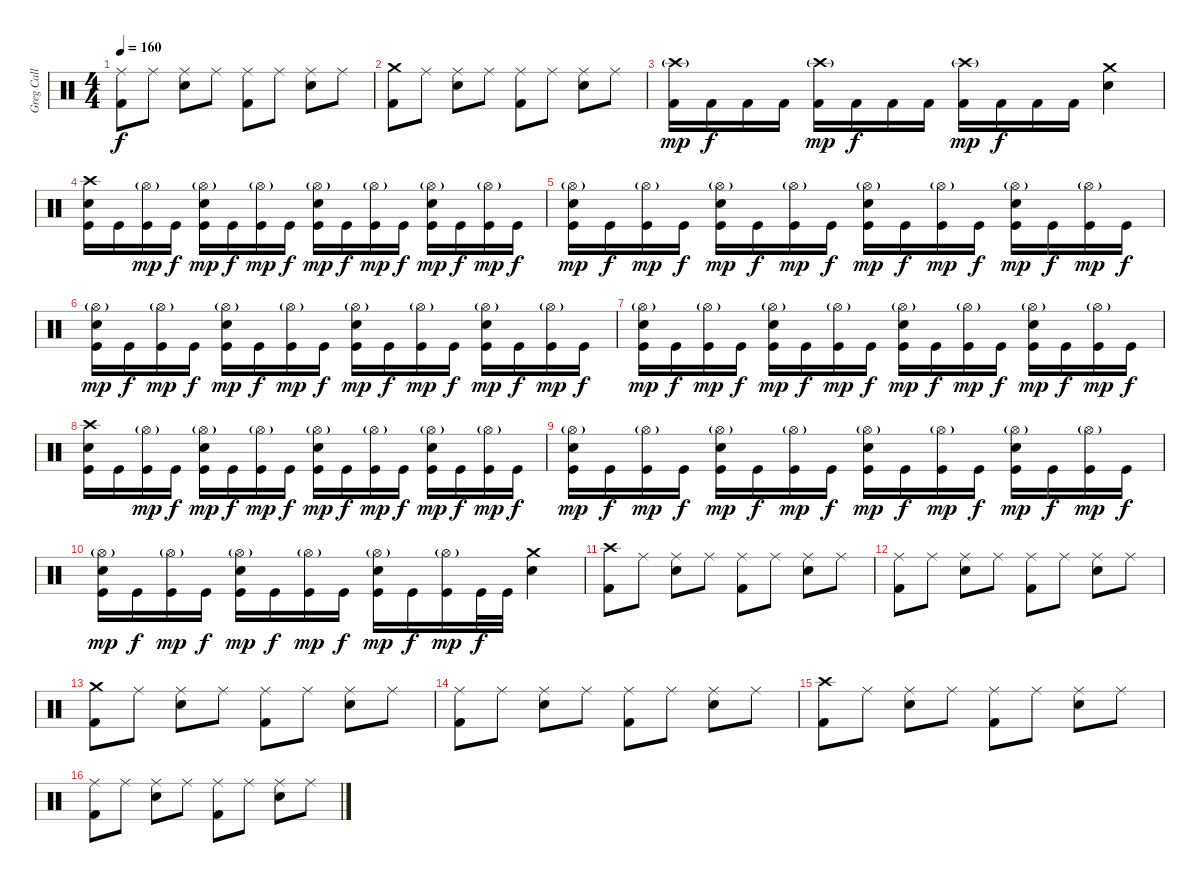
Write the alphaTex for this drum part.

\track ("Greg Call (Drums)" "Greg Call ") {instrument percussion}
\staff {score}
\articulation defaults
\ts (4 4)
\tempo 160
\clef neutral
\ks c
("Ride (middle)" "Kick (hit) 2").8{dy f} "Ride (middle)".8 ("Ride (middle)" "Electric Snare (hit)").8 "Ride (middle)".8 ("Ride (middle)" "Kick (hit) 2").8 "Ride (middle)".8 ("Ride (middle)" "Electric Snare (hit)").8 "Ride (middle)".8 |
("Crash medium (hit)" "Kick (hit) 2").8 "Ride (middle)".8 ("Ride (middle)" "Electric Snare (hit)").8 "Ride (middle)".8 ("Ride (middle)" "Kick (hit) 2").8 "Ride (middle)".8 ("Ride (middle)" "Electric Snare (hit)").8 "Ride (middle)".8 |
("Kick (hit) 2" "Crash high (hit)"{g}).16{dy mp} "Kick (hit) 2".16{dy f} "Kick (hit) 2".16 "Kick (hit) 2".16 ("Crash high (hit)"{g} "Kick (hit) 2").16{dy mp} "Kick (hit) 2".16{dy f} "Kick (hit) 2".16 "Kick (hit) 2".16 ("Crash high (hit)"{g} "Kick (hit) 2").16{dy mp} "Kick (hit) 2".16{dy f} "Kick (hit) 2".16 "Kick (hit) 2".16 ("Crash medium (hit)" "Electric Snare (hit)").4 |
("Crash high (hit)" "Electric Snare (hit)" "Kick (hit)").16 "Kick (hit)".16 ("Hi-Hat (open)"{g} "Kick (hit)").16{dy mp} "Kick (hit)".16{dy f} ("Hi-Hat (open)"{g} "Electric Snare (hit)" "Kick (hit)").16{dy mp} "Kick (hit)".16{dy f} ("Hi-Hat (open)"{g} "Kick (hit)").16{dy mp} "Kick (hit)".16{dy f} ("Hi-Hat (open)"{g} "Electric Snare (hit)" "Kick (hit)").16{dy mp} "Kick (hit)".16{dy f} ("Hi-Hat (open)"{g} "Kick (hit)").16{dy mp} "Kick (hit)".16{dy f} ("Hi-Hat (open)"{g} "Electric Snare (hit)" "Kick (hit)").16{dy mp} "Kick (hit)".16{dy f} ("Hi-Hat (open)"{g} "Kick (hit)").16{dy mp} "Kick (hit)".16{dy f} |
("Hi-Hat (open)"{g} "Electric Snare (hit)" "Kick (hit)").16{dy mp} "Kick (hit)".16{dy f} ("Hi-Hat (open)"{g} "Kick (hit)").16{dy mp} "Kick (hit)".16{dy f} ("Hi-Hat (open)"{g} "Electric Snare (hit)" "Kick (hit)").16{dy mp} "Kick (hit)".16{dy f} ("Hi-Hat (open)"{g} "Kick (hit)").16{dy mp} "Kick (hit)".16{dy f} ("Hi-Hat (open)"{g} "Electric Snare (hit)" "Kick (hit)").16{dy mp} "Kick (hit)".16{dy f} ("Hi-Hat (open)"{g} "Kick (hit)").16{dy mp} "Kick (hit)".16{dy f} ("Hi-Hat (open)"{g} "Electric Snare (hit)" "Kick (hit)").16{dy mp} "Kick (hit)".16{dy f} ("Hi-Hat (open)"{g} "Kick (hit)").16{dy mp} "Kick (hit)".16{dy f} |
("Hi-Hat (open)"{g} "Electric Snare (hit)" "Kick (hit)").16{dy mp} "Kick (hit)".16{dy f} ("Hi-Hat (open)"{g} "Kick (hit)").16{dy mp} "Kick (hit)".16{dy f} ("Hi-Hat (open)"{g} "Electric Snare (hit)" "Kick (hit)").16{dy mp} "Kick (hit)".16{dy f} ("Hi-Hat (open)"{g} "Kick (hit)").16{dy mp} "Kick (hit)".16{dy f} ("Hi-Hat (open)"{g} "Electric Snare (hit)" "Kick (hit)").16{dy mp} "Kick (hit)".16{dy f} ("Hi-Hat (open)"{g} "Kick (hit)").16{dy mp} "Kick (hit)".16{dy f} ("Hi-Hat (open)"{g} "Electric Snare (hit)" "Kick (hit)").16{dy mp} "Kick (hit)".16{dy f} ("Hi-Hat (open)"{g} "Kick (hit)").16{dy mp} "Kick (hit)".16{dy f} |
("Hi-Hat (open)"{g} "Electric Snare (hit)" "Kick (hit)").16{dy mp} "Kick (hit)".16{dy f} ("Hi-Hat (open)"{g} "Kick (hit)").16{dy mp} "Kick (hit)".16{dy f} ("Hi-Hat (open)"{g} "Electric Snare (hit)" "Kick (hit)").16{dy mp} "Kick (hit)".16{dy f} ("Hi-Hat (open)"{g} "Kick (hit)").16{dy mp} "Kick (hit)".16{dy f} ("Hi-Hat (open)"{g} "Electric Snare (hit)" "Kick (hit)").16{dy mp} "Kick (hit)".16{dy f} ("Hi-Hat (open)"{g} "Kick (hit)").16{dy mp} "Kick (hit)".16{dy f} ("Hi-Hat (open)"{g} "Electric Snare (hit)" "Kick (hit)").16{dy mp} "Kick (hit)".16{dy f} ("Hi-Hat (open)"{g} "Kick (hit)").16{dy mp} "Kick (hit)".16{dy f} |
("Crash high (hit)" "Electric Snare (hit)" "Kick (hit)").16 "Kick (hit)".16 ("Hi-Hat (open)"{g} "Kick (hit)").16{dy mp} "Kick (hit)".16{dy f} ("Hi-Hat (open)"{g} "Electric Snare (hit)" "Kick (hit)").16{dy mp} "Kick (hit)".16{dy f} ("Hi-Hat (open)"{g} "Kick (hit)").16{dy mp} "Kick (hit)".16{dy f} ("Hi-Hat (open)"{g} "Electric Snare (hit)" "Kick (hit)").16{dy mp} "Kick (hit)".16{dy f} ("Hi-Hat (open)"{g} "Kick (hit)").16{dy mp} "Kick (hit)".16{dy f} ("Hi-Hat (open)"{g} "Electric Snare (hit)" "Kick (hit)").16{dy mp} "Kick (hit)".16{dy f} ("Hi-Hat (open)"{g} "Kick (hit)").16{dy mp} "Kick (hit)".16{dy f} |
("Hi-Hat (open)"{g} "Electric Snare (hit)" "Kick (hit)").16{dy mp} "Kick (hit)".16{dy f} ("Hi-Hat (open)"{g} "Kick (hit)").16{dy mp} "Kick (hit)".16{dy f} ("Hi-Hat (open)"{g} "Electric Snare (hit)" "Kick (hit)").16{dy mp} "Kick (hit)".16{dy f} ("Hi-Hat (open)"{g} "Kick (hit)").16{dy mp} "Kick (hit)".16{dy f} ("Hi-Hat (open)"{g} "Electric Snare (hit)" "Kick (hit)").16{dy mp} "Kick (hit)".16{dy f} ("Hi-Hat (open)"{g} "Kick (hit)").16{dy mp} "Kick (hit)".16{dy f} ("Hi-Hat (open)"{g} "Electric Snare (hit)" "Kick (hit)").16{dy mp} "Kick (hit)".16{dy f} ("Hi-Hat (open)"{g} "Kick (hit)").16{dy mp} "Kick (hit)".16{dy f} |
("Hi-Hat (open)"{g} "Electric Snare (hit)" "Kick (hit)").16{dy mp} "Kick (hit)".16{dy f} ("Hi-Hat (open)"{g} "Kick (hit)").16{dy mp} "Kick (hit)".16{dy f} ("Hi-Hat (open)"{g} "Electric Snare (hit)" "Kick (hit)").16{dy mp} "Kick (hit)".16{dy f} ("Hi-Hat (open)"{g} "Kick (hit)").16{dy mp} "Kick (hit)".16{dy f} ("Hi-Hat (open)"{g} "Electric Snare (hit)" "Kick (hit)").16{dy mp} "Kick (hit)".16{dy f} ("Hi-Hat (open)"{g} "Kick (hit)").16{dy mp} "Kick (hit)".32{dy f} "Kick (hit)".32 ("Crash medium (hit)" "Electric Snare (hit)").4 |
("Crash high (hit)" "Kick (hit) 2").8 "Ride (middle)".8 ("Ride (middle)" "Electric Snare (hit)").8 "Ride (middle)".8 ("Ride (middle)" "Kick (hit) 2").8 "Ride (middle)".8 ("Ride (middle)" "Electric Snare (hit)").8 "Ride (middle)".8 |
("Ride (middle)" "Kick (hit) 2").8 "Ride (middle)".8 ("Ride (middle)" "Electric Snare (hit)").8 "Ride (middle)".8 ("Ride (middle)" "Kick (hit) 2").8 "Ride (middle)".8 ("Ride (middle)" "Electric Snare (hit)").8 "Ride (middle)".8 |
("Crash medium (hit)" "Kick (hit) 2").8 "Ride (middle)".8 ("Ride (middle)" "Electric Snare (hit)").8 "Ride (middle)".8 ("Ride (middle)" "Kick (hit) 2").8 "Ride (middle)".8 ("Ride (middle)" "Electric Snare (hit)").8 "Ride (middle)".8 |
("Ride (middle)" "Kick (hit) 2").8 "Ride (middle)".8 ("Ride (middle)" "Electric Snare (hit)").8 "Ride (middle)".8 ("Ride (middle)" "Kick (hit) 2").8 "Ride (middle)".8 ("Ride (middle)" "Electric Snare (hit)").8 "Ride (middle)".8 |
("Crash high (hit)" "Kick (hit) 2").8 "Ride (middle)".8 ("Ride (middle)" "Electric Snare (hit)").8 "Ride (middle)".8 ("Ride (middle)" "Kick (hit) 2").8 "Ride (middle)".8 ("Ride (middle)" "Electric Snare (hit)").8 "Ride (middle)".8 |
("Ride (middle)" "Kick (hit) 2").8 "Ride (middle)".8 ("Ride (middle)" "Electric Snare (hit)").8 "Ride (middle)".8 ("Ride (middle)" "Kick (hit) 2").8 "Ride (middle)".8 ("Ride (middle)" "Electric Snare (hit)").8 "Ride (middle)".8
